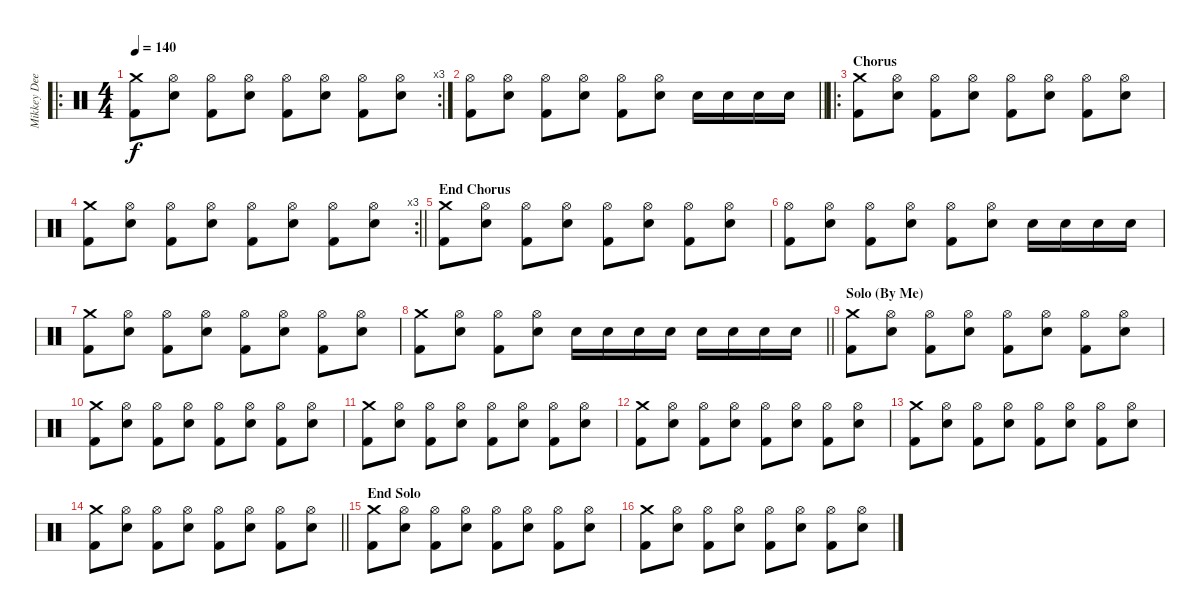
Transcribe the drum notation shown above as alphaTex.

\track ("Mikkey Dee" "Mikkey Dee") {instrument percussion}
\staff {score}
\articulation defaults
\ro
\rc 3
\ts (4 4)
\tempo 140
\clef neutral
\ks c
("Crash medium (hit)" "Kick (hit) 2").8{dy f} ("Hi-Hat (open)" "Snare (hit) 2").8 ("Hi-Hat (open)" "Kick (hit) 2").8 ("Hi-Hat (open)" "Snare (hit) 2").8 ("Hi-Hat (open)" "Kick (hit) 2").8 ("Hi-Hat (open)" "Snare (hit) 2").8 ("Hi-Hat (open)" "Kick (hit) 2").8 ("Hi-Hat (open)" "Snare (hit) 2").8 |
\barLineRight lightlight
("Hi-Hat (open)" "Kick (hit) 2").8 ("Hi-Hat (open)" "Electric Snare (hit)").8 ("Hi-Hat (open)" "Kick (hit) 2").8 ("Hi-Hat (open)" "Electric Snare (hit)").8 ("Hi-Hat (open)" "Kick (hit) 2").8 ("Hi-Hat (open)" "Electric Snare (hit)").8 "Electric Snare (hit)".16 "Electric Snare (hit)".16 "Electric Snare (hit)".16 "Electric Snare (hit)".16 |
\ro
\section ("" "Chorus")
("Crash medium (hit)" "Kick (hit) 2").8 ("Hi-Hat (open)" "Snare (hit) 2").8 ("Hi-Hat (open)" "Kick (hit) 2").8 ("Hi-Hat (open)" "Snare (hit) 2").8 ("Hi-Hat (open)" "Kick (hit) 2").8 ("Hi-Hat (open)" "Snare (hit) 2").8 ("Hi-Hat (open)" "Kick (hit) 2").8 ("Hi-Hat (open)" "Snare (hit) 2").8 |
\rc 3
\barLineRight lightlight
("Crash medium (hit)" "Kick (hit) 2").8 ("Hi-Hat (open)" "Snare (hit) 2").8 ("Hi-Hat (open)" "Kick (hit) 2").8 ("Hi-Hat (open)" "Snare (hit) 2").8 ("Hi-Hat (open)" "Kick (hit) 2").8 ("Hi-Hat (open)" "Snare (hit) 2").8 ("Hi-Hat (open)" "Kick (hit) 2").8 ("Hi-Hat (open)" "Snare (hit) 2").8 |
\section ("" "End Chorus")
("Crash medium (hit)" "Kick (hit) 2").8 ("Hi-Hat (open)" "Snare (hit) 2").8 ("Hi-Hat (open)" "Kick (hit) 2").8 ("Hi-Hat (open)" "Snare (hit) 2").8 ("Hi-Hat (open)" "Kick (hit) 2").8 ("Hi-Hat (open)" "Snare (hit) 2").8 ("Hi-Hat (open)" "Kick (hit) 2").8 ("Hi-Hat (open)" "Snare (hit) 2").8 |
("Hi-Hat (open)" "Kick (hit) 2").8 ("Hi-Hat (open)" "Electric Snare (hit)").8 ("Hi-Hat (open)" "Kick (hit) 2").8 ("Hi-Hat (open)" "Electric Snare (hit)").8 ("Hi-Hat (open)" "Kick (hit) 2").8 ("Hi-Hat (open)" "Electric Snare (hit)").8 "Electric Snare (hit)".16 "Electric Snare (hit)".16 "Electric Snare (hit)".16 "Electric Snare (hit)".16 |
("Crash medium (hit)" "Kick (hit) 2").8 ("Hi-Hat (open)" "Snare (hit) 2").8 ("Hi-Hat (open)" "Kick (hit) 2").8 ("Hi-Hat (open)" "Snare (hit) 2").8 ("Hi-Hat (open)" "Kick (hit) 2").8 ("Hi-Hat (open)" "Snare (hit) 2").8 ("Hi-Hat (open)" "Kick (hit) 2").8 ("Hi-Hat (open)" "Snare (hit) 2").8 |
\barLineRight lightlight
("Crash medium (hit)" "Kick (hit) 2").8 ("Hi-Hat (open)" "Electric Snare (hit)").8 ("Hi-Hat (open)" "Kick (hit) 2").8 ("Hi-Hat (open)" "Electric Snare (hit)").8 "Electric Snare (hit)".16 "Electric Snare (hit)".16 "Electric Snare (hit)".16 "Electric Snare (hit)".16 "Electric Snare (hit)".16 "Electric Snare (hit)".16 "Electric Snare (hit)".16 "Electric Snare (hit)".16 |
\section ("" "Solo (By Me)")
("Crash medium (hit)" "Kick (hit) 2").8 ("Hi-Hat (open)" "Snare (hit) 2").8 ("Hi-Hat (open)" "Kick (hit) 2").8 ("Hi-Hat (open)" "Snare (hit) 2").8 ("Hi-Hat (open)" "Kick (hit) 2").8 ("Hi-Hat (open)" "Snare (hit) 2").8 ("Hi-Hat (open)" "Kick (hit) 2").8 ("Hi-Hat (open)" "Snare (hit) 2").8 |
("Crash medium (hit)" "Kick (hit) 2").8 ("Hi-Hat (open)" "Snare (hit) 2").8 ("Hi-Hat (open)" "Kick (hit) 2").8 ("Hi-Hat (open)" "Snare (hit) 2").8 ("Hi-Hat (open)" "Kick (hit) 2").8 ("Hi-Hat (open)" "Snare (hit) 2").8 ("Hi-Hat (open)" "Kick (hit) 2").8 ("Hi-Hat (open)" "Snare (hit) 2").8 |
("Crash medium (hit)" "Kick (hit) 2").8 ("Hi-Hat (open)" "Snare (hit) 2").8 ("Hi-Hat (open)" "Kick (hit) 2").8 ("Hi-Hat (open)" "Snare (hit) 2").8 ("Hi-Hat (open)" "Kick (hit) 2").8 ("Hi-Hat (open)" "Snare (hit) 2").8 ("Hi-Hat (open)" "Kick (hit) 2").8 ("Hi-Hat (open)" "Snare (hit) 2").8 |
("Crash medium (hit)" "Kick (hit) 2").8 ("Hi-Hat (open)" "Snare (hit) 2").8 ("Hi-Hat (open)" "Kick (hit) 2").8 ("Hi-Hat (open)" "Snare (hit) 2").8 ("Hi-Hat (open)" "Kick (hit) 2").8 ("Hi-Hat (open)" "Snare (hit) 2").8 ("Hi-Hat (open)" "Kick (hit) 2").8 ("Hi-Hat (open)" "Snare (hit) 2").8 |
("Crash medium (hit)" "Kick (hit) 2").8 ("Hi-Hat (open)" "Snare (hit) 2").8 ("Hi-Hat (open)" "Kick (hit) 2").8 ("Hi-Hat (open)" "Snare (hit) 2").8 ("Hi-Hat (open)" "Kick (hit) 2").8 ("Hi-Hat (open)" "Snare (hit) 2").8 ("Hi-Hat (open)" "Kick (hit) 2").8 ("Hi-Hat (open)" "Snare (hit) 2").8 |
\barLineRight lightlight
("Crash medium (hit)" "Kick (hit) 2").8 ("Hi-Hat (open)" "Snare (hit) 2").8 ("Hi-Hat (open)" "Kick (hit) 2").8 ("Hi-Hat (open)" "Snare (hit) 2").8 ("Hi-Hat (open)" "Kick (hit) 2").8 ("Hi-Hat (open)" "Snare (hit) 2").8 ("Hi-Hat (open)" "Kick (hit) 2").8 ("Hi-Hat (open)" "Snare (hit) 2").8 |
\section ("" "End Solo")
("Crash medium (hit)" "Kick (hit) 2").8 ("Hi-Hat (open)" "Snare (hit) 2").8 ("Hi-Hat (open)" "Kick (hit) 2").8 ("Hi-Hat (open)" "Snare (hit) 2").8 ("Hi-Hat (open)" "Kick (hit) 2").8 ("Hi-Hat (open)" "Snare (hit) 2").8 ("Hi-Hat (open)" "Kick (hit) 2").8 ("Hi-Hat (open)" "Snare (hit) 2").8 |
("Crash medium (hit)" "Kick (hit) 2").8 ("Hi-Hat (open)" "Snare (hit) 2").8 ("Hi-Hat (open)" "Kick (hit) 2").8 ("Hi-Hat (open)" "Snare (hit) 2").8 ("Hi-Hat (open)" "Kick (hit) 2").8 ("Hi-Hat (open)" "Snare (hit) 2").8 ("Hi-Hat (open)" "Kick (hit) 2").8 ("Hi-Hat (open)" "Snare (hit) 2").8
